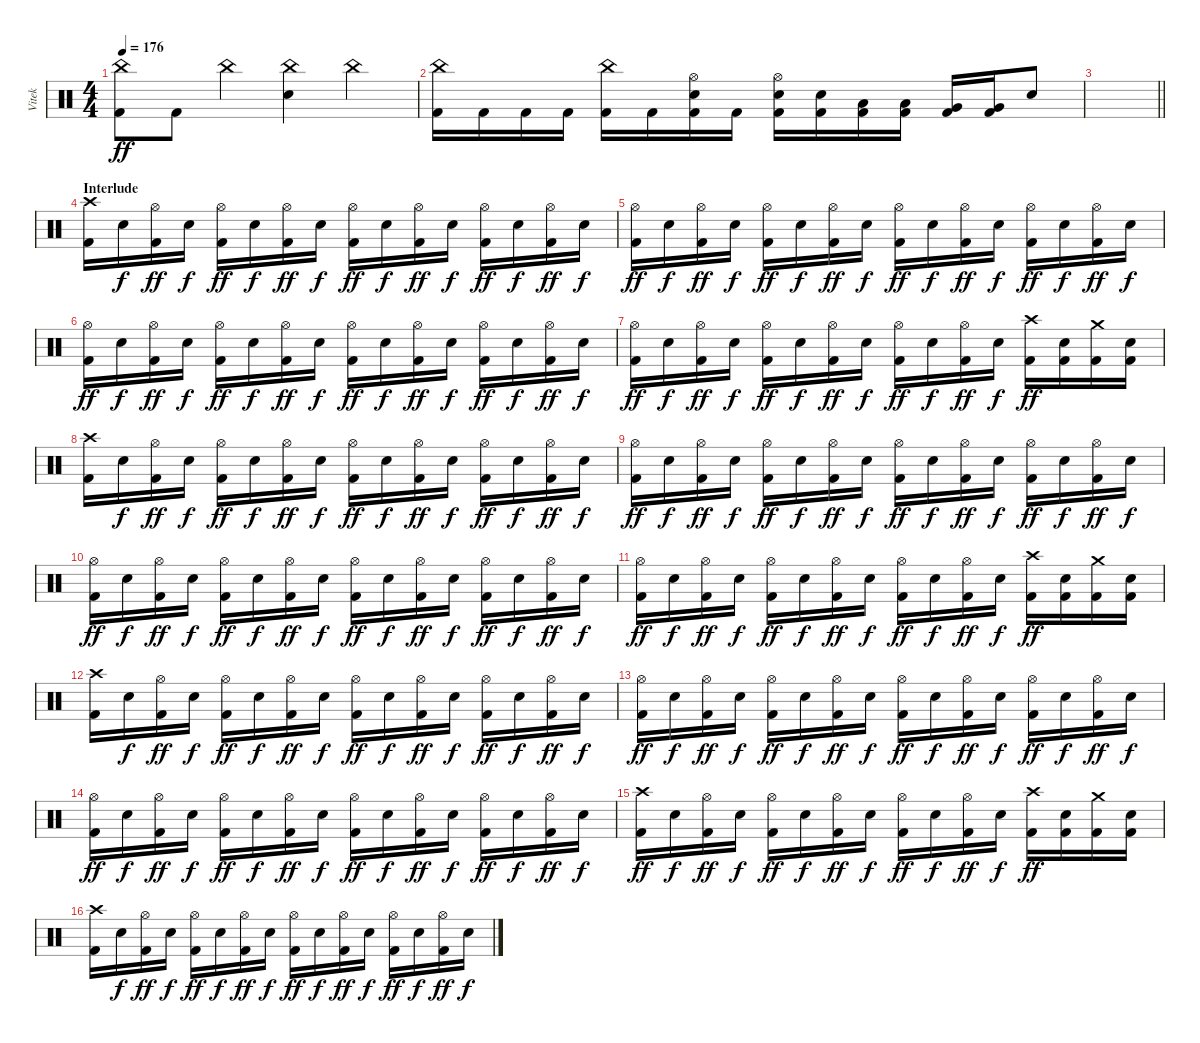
\track ("Vitek" "Vitek") {instrument percussion}
\staff {score}
\articulation defaults
\ts (4 4)
\tempo 176
\clef neutral
\ks c
("China (hit)" "Kick (hit) 2").8{dy ff} "Kick (hit) 2".8 "China (hit)".4 ("China (hit)" "Electric Snare (hit)").4 "China (hit)".4 |
("China (hit)" "Kick (hit) 2").16 "Kick (hit) 2".16 "Kick (hit) 2".16 "Kick (hit) 2".16 ("China (hit)" "Kick (hit) 2").16 "Kick (hit) 2".16 ("Hi-Hat (open)" "Electric Snare (hit)" "Kick (hit) 2").16 "Kick (hit) 2".16 ("Hi-Hat (open)" "Electric Snare (hit)" "Kick (hit) 2").16 ("Electric Snare (hit)" "Kick (hit) 2").16 ("Low Tom (hit)" "Kick (hit) 2").16 ("Low Tom (hit)" "Kick (hit) 2").16 ("Very Low Tom (hit)" "Kick (hit) 2").16 ("Very Low Tom (hit)" "Kick (hit) 2").16 "Electric Snare (hit)".8 |
\barLineRight lightlight
|
\section ("" "Interlude")
("Crash high (hit)" "Kick (hit) 2").16 "Electric Snare (hit)".16{dy f} ("Hi-Hat (open)" "Kick (hit) 2").16{dy ff} "Electric Snare (hit)".16{dy f} ("Hi-Hat (open)" "Kick (hit) 2").16{dy ff} "Electric Snare (hit)".16{dy f} ("Hi-Hat (open)" "Kick (hit) 2").16{dy ff} "Electric Snare (hit)".16{dy f} ("Hi-Hat (open)" "Kick (hit) 2").16{dy ff} "Electric Snare (hit)".16{dy f} ("Hi-Hat (open)" "Kick (hit) 2").16{dy ff} "Electric Snare (hit)".16{dy f} ("Hi-Hat (open)" "Kick (hit) 2").16{dy ff} "Electric Snare (hit)".16{dy f} ("Hi-Hat (open)" "Kick (hit) 2").16{dy ff} "Electric Snare (hit)".16{dy f} |
("Hi-Hat (open)" "Kick (hit) 2").16{dy ff} "Electric Snare (hit)".16{dy f} ("Hi-Hat (open)" "Kick (hit) 2").16{dy ff} "Electric Snare (hit)".16{dy f} ("Hi-Hat (open)" "Kick (hit) 2").16{dy ff} "Electric Snare (hit)".16{dy f} ("Hi-Hat (open)" "Kick (hit) 2").16{dy ff} "Electric Snare (hit)".16{dy f} ("Hi-Hat (open)" "Kick (hit) 2").16{dy ff} "Electric Snare (hit)".16{dy f} ("Hi-Hat (open)" "Kick (hit) 2").16{dy ff} "Electric Snare (hit)".16{dy f} ("Hi-Hat (open)" "Kick (hit) 2").16{dy ff} "Electric Snare (hit)".16{dy f} ("Hi-Hat (open)" "Kick (hit) 2").16{dy ff} "Electric Snare (hit)".16{dy f} |
("Hi-Hat (open)" "Kick (hit) 2").16{dy ff} "Electric Snare (hit)".16{dy f} ("Hi-Hat (open)" "Kick (hit) 2").16{dy ff} "Electric Snare (hit)".16{dy f} ("Hi-Hat (open)" "Kick (hit) 2").16{dy ff} "Electric Snare (hit)".16{dy f} ("Hi-Hat (open)" "Kick (hit) 2").16{dy ff} "Electric Snare (hit)".16{dy f} ("Hi-Hat (open)" "Kick (hit) 2").16{dy ff} "Electric Snare (hit)".16{dy f} ("Hi-Hat (open)" "Kick (hit) 2").16{dy ff} "Electric Snare (hit)".16{dy f} ("Hi-Hat (open)" "Kick (hit) 2").16{dy ff} "Electric Snare (hit)".16{dy f} ("Hi-Hat (open)" "Kick (hit) 2").16{dy ff} "Electric Snare (hit)".16{dy f} |
("Hi-Hat (open)" "Kick (hit) 2").16{dy ff} "Electric Snare (hit)".16{dy f} ("Hi-Hat (open)" "Kick (hit) 2").16{dy ff} "Electric Snare (hit)".16{dy f} ("Hi-Hat (open)" "Kick (hit) 2").16{dy ff} "Electric Snare (hit)".16{dy f} ("Hi-Hat (open)" "Kick (hit) 2").16{dy ff} "Electric Snare (hit)".16{dy f} ("Hi-Hat (open)" "Kick (hit) 2").16{dy ff} "Electric Snare (hit)".16{dy f} ("Hi-Hat (open)" "Kick (hit) 2").16{dy ff} "Electric Snare (hit)".16{dy f} ("Crash high (hit)" "Kick (hit) 2").16{dy ff} ("Electric Snare (hit)" "Kick (hit) 2").16 ("Crash medium (hit)" "Kick (hit) 2").16 ("Electric Snare (hit)" "Kick (hit) 2").16 |
("Crash high (hit)" "Kick (hit) 2").16 "Electric Snare (hit)".16{dy f} ("Hi-Hat (open)" "Kick (hit) 2").16{dy ff} "Electric Snare (hit)".16{dy f} ("Hi-Hat (open)" "Kick (hit) 2").16{dy ff} "Electric Snare (hit)".16{dy f} ("Hi-Hat (open)" "Kick (hit) 2").16{dy ff} "Electric Snare (hit)".16{dy f} ("Hi-Hat (open)" "Kick (hit) 2").16{dy ff} "Electric Snare (hit)".16{dy f} ("Hi-Hat (open)" "Kick (hit) 2").16{dy ff} "Electric Snare (hit)".16{dy f} ("Hi-Hat (open)" "Kick (hit) 2").16{dy ff} "Electric Snare (hit)".16{dy f} ("Hi-Hat (open)" "Kick (hit) 2").16{dy ff} "Electric Snare (hit)".16{dy f} |
("Hi-Hat (open)" "Kick (hit) 2").16{dy ff} "Electric Snare (hit)".16{dy f} ("Hi-Hat (open)" "Kick (hit) 2").16{dy ff} "Electric Snare (hit)".16{dy f} ("Hi-Hat (open)" "Kick (hit) 2").16{dy ff} "Electric Snare (hit)".16{dy f} ("Hi-Hat (open)" "Kick (hit) 2").16{dy ff} "Electric Snare (hit)".16{dy f} ("Hi-Hat (open)" "Kick (hit) 2").16{dy ff} "Electric Snare (hit)".16{dy f} ("Hi-Hat (open)" "Kick (hit) 2").16{dy ff} "Electric Snare (hit)".16{dy f} ("Hi-Hat (open)" "Kick (hit) 2").16{dy ff} "Electric Snare (hit)".16{dy f} ("Hi-Hat (open)" "Kick (hit) 2").16{dy ff} "Electric Snare (hit)".16{dy f} |
("Hi-Hat (open)" "Kick (hit) 2").16{dy ff} "Electric Snare (hit)".16{dy f} ("Hi-Hat (open)" "Kick (hit) 2").16{dy ff} "Electric Snare (hit)".16{dy f} ("Hi-Hat (open)" "Kick (hit) 2").16{dy ff} "Electric Snare (hit)".16{dy f} ("Hi-Hat (open)" "Kick (hit) 2").16{dy ff} "Electric Snare (hit)".16{dy f} ("Hi-Hat (open)" "Kick (hit) 2").16{dy ff} "Electric Snare (hit)".16{dy f} ("Hi-Hat (open)" "Kick (hit) 2").16{dy ff} "Electric Snare (hit)".16{dy f} ("Hi-Hat (open)" "Kick (hit) 2").16{dy ff} "Electric Snare (hit)".16{dy f} ("Hi-Hat (open)" "Kick (hit) 2").16{dy ff} "Electric Snare (hit)".16{dy f} |
("Hi-Hat (open)" "Kick (hit) 2").16{dy ff} "Electric Snare (hit)".16{dy f} ("Hi-Hat (open)" "Kick (hit) 2").16{dy ff} "Electric Snare (hit)".16{dy f} ("Hi-Hat (open)" "Kick (hit) 2").16{dy ff} "Electric Snare (hit)".16{dy f} ("Hi-Hat (open)" "Kick (hit) 2").16{dy ff} "Electric Snare (hit)".16{dy f} ("Hi-Hat (open)" "Kick (hit) 2").16{dy ff} "Electric Snare (hit)".16{dy f} ("Hi-Hat (open)" "Kick (hit) 2").16{dy ff} "Electric Snare (hit)".16{dy f} ("Crash high (hit)" "Kick (hit) 2").16{dy ff} ("Electric Snare (hit)" "Kick (hit) 2").16 ("Crash medium (hit)" "Kick (hit) 2").16 ("Electric Snare (hit)" "Kick (hit) 2").16 |
("Crash high (hit)" "Kick (hit) 2").16 "Electric Snare (hit)".16{dy f} ("Hi-Hat (open)" "Kick (hit) 2").16{dy ff} "Electric Snare (hit)".16{dy f} ("Hi-Hat (open)" "Kick (hit) 2").16{dy ff} "Electric Snare (hit)".16{dy f} ("Hi-Hat (open)" "Kick (hit) 2").16{dy ff} "Electric Snare (hit)".16{dy f} ("Hi-Hat (open)" "Kick (hit) 2").16{dy ff} "Electric Snare (hit)".16{dy f} ("Hi-Hat (open)" "Kick (hit) 2").16{dy ff} "Electric Snare (hit)".16{dy f} ("Hi-Hat (open)" "Kick (hit) 2").16{dy ff} "Electric Snare (hit)".16{dy f} ("Hi-Hat (open)" "Kick (hit) 2").16{dy ff} "Electric Snare (hit)".16{dy f} |
("Hi-Hat (open)" "Kick (hit) 2").16{dy ff} "Electric Snare (hit)".16{dy f} ("Hi-Hat (open)" "Kick (hit) 2").16{dy ff} "Electric Snare (hit)".16{dy f} ("Hi-Hat (open)" "Kick (hit) 2").16{dy ff} "Electric Snare (hit)".16{dy f} ("Hi-Hat (open)" "Kick (hit) 2").16{dy ff} "Electric Snare (hit)".16{dy f} ("Hi-Hat (open)" "Kick (hit) 2").16{dy ff} "Electric Snare (hit)".16{dy f} ("Hi-Hat (open)" "Kick (hit) 2").16{dy ff} "Electric Snare (hit)".16{dy f} ("Hi-Hat (open)" "Kick (hit) 2").16{dy ff} "Electric Snare (hit)".16{dy f} ("Hi-Hat (open)" "Kick (hit) 2").16{dy ff} "Electric Snare (hit)".16{dy f} |
("Hi-Hat (open)" "Kick (hit) 2").16{dy ff} "Electric Snare (hit)".16{dy f} ("Hi-Hat (open)" "Kick (hit) 2").16{dy ff} "Electric Snare (hit)".16{dy f} ("Hi-Hat (open)" "Kick (hit) 2").16{dy ff} "Electric Snare (hit)".16{dy f} ("Hi-Hat (open)" "Kick (hit) 2").16{dy ff} "Electric Snare (hit)".16{dy f} ("Hi-Hat (open)" "Kick (hit) 2").16{dy ff} "Electric Snare (hit)".16{dy f} ("Hi-Hat (open)" "Kick (hit) 2").16{dy ff} "Electric Snare (hit)".16{dy f} ("Hi-Hat (open)" "Kick (hit) 2").16{dy ff} "Electric Snare (hit)".16{dy f} ("Hi-Hat (open)" "Kick (hit) 2").16{dy ff} "Electric Snare (hit)".16{dy f} |
("Crash high (hit)" "Kick (hit) 2").16{dy ff} "Electric Snare (hit)".16{dy f} ("Hi-Hat (open)" "Kick (hit) 2").16{dy ff} "Electric Snare (hit)".16{dy f} ("Hi-Hat (open)" "Kick (hit) 2").16{dy ff} "Electric Snare (hit)".16{dy f} ("Hi-Hat (open)" "Kick (hit) 2").16{dy ff} "Electric Snare (hit)".16{dy f} ("Hi-Hat (open)" "Kick (hit) 2").16{dy ff} "Electric Snare (hit)".16{dy f} ("Hi-Hat (open)" "Kick (hit) 2").16{dy ff} "Electric Snare (hit)".16{dy f} ("Crash high (hit)" "Kick (hit) 2").16{dy ff} ("Electric Snare (hit)" "Kick (hit) 2").16 ("Crash medium (hit)" "Kick (hit) 2").16 ("Electric Snare (hit)" "Kick (hit) 2").16 |
("Crash high (hit)" "Kick (hit) 2").16 "Electric Snare (hit)".16{dy f} ("Hi-Hat (open)" "Kick (hit) 2").16{dy ff} "Electric Snare (hit)".16{dy f} ("Hi-Hat (open)" "Kick (hit) 2").16{dy ff} "Electric Snare (hit)".16{dy f} ("Hi-Hat (open)" "Kick (hit) 2").16{dy ff} "Electric Snare (hit)".16{dy f} ("Hi-Hat (open)" "Kick (hit) 2").16{dy ff} "Electric Snare (hit)".16{dy f} ("Hi-Hat (open)" "Kick (hit) 2").16{dy ff} "Electric Snare (hit)".16{dy f} ("Hi-Hat (open)" "Kick (hit) 2").16{dy ff} "Electric Snare (hit)".16{dy f} ("Hi-Hat (open)" "Kick (hit) 2").16{dy ff} "Electric Snare (hit)".16{dy f}
